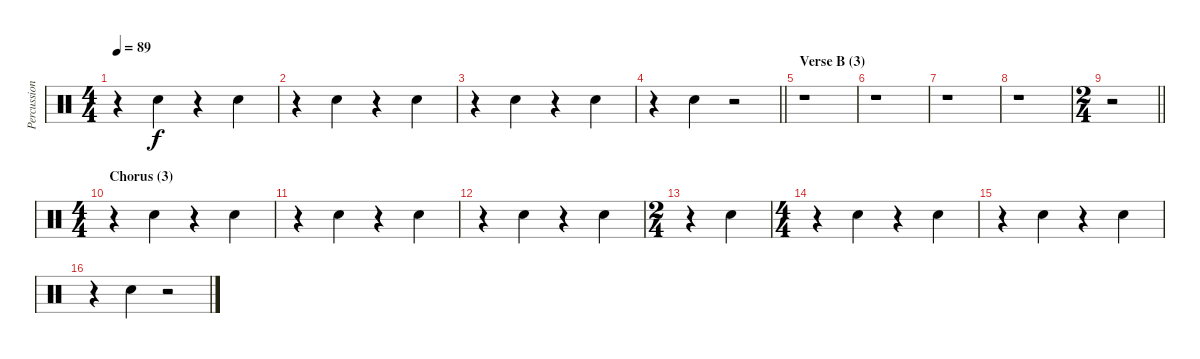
\track ("Percussion" "Percussion") {instrument percussion}
\staff {score}
\articulation defaults
\ts (4 4)
\tempo 89
\clef neutral
\ks c
r.4{dy f} "Hand Clap (hit)".4 r.4 "Hand Clap (hit)".4 |
r.4 "Hand Clap (hit)".4 r.4 "Hand Clap (hit)".4 |
r.4 "Hand Clap (hit)".4 r.4 "Hand Clap (hit)".4 |
\barLineRight lightlight
r.4 "Hand Clap (hit)".4 r.2 |
\section ("" "Verse B (3)")
r.1 |
r.1 |
r.1 |
r.1 |
\ts (2 4)
\barLineRight lightlight
r.2 |
\ts (4 4)
\section ("" "Chorus (3)")
r.4 "Hand Clap (hit)".4 r.4 "Hand Clap (hit)".4 |
r.4 "Hand Clap (hit)".4 r.4 "Hand Clap (hit)".4 |
r.4 "Hand Clap (hit)".4 r.4 "Hand Clap (hit)".4 |
\ts (2 4)
r.4 "Hand Clap (hit)".4 |
\ts (4 4)
r.4 "Hand Clap (hit)".4 r.4 "Hand Clap (hit)".4 |
r.4 "Hand Clap (hit)".4 r.4 "Hand Clap (hit)".4 |
r.4 "Hand Clap (hit)".4 r.2
